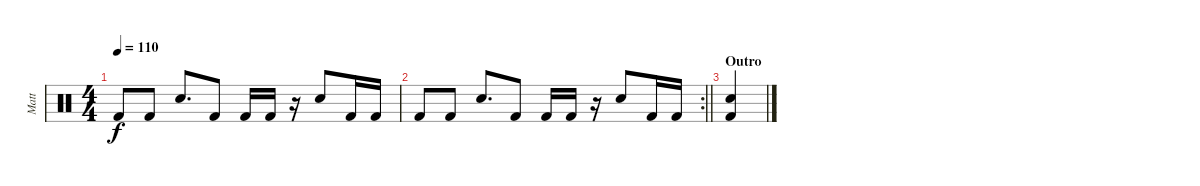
\track ("Matt" "Matt") {instrument percussion}
\staff {score}
\articulation defaults
\ts (4 4)
\tempo 110
\clef neutral
\ks c "Kick (hit) 2".8{dy f} "Kick (hit) 2".8 "Snare (hit) 2".8{d} "Kick (hit) 2".8 "Kick (hit) 2".16 "Kick (hit) 2".16
r.16 "Snare (hit) 2".8 "Kick (hit) 2".16 "Kick (hit) 2".16 |
\rc 2
\barLineRight lightlight "Kick (hit) 2".8 "Kick (hit) 2".8 "Snare (hit) 2".8{d} "Kick (hit) 2".8 "Kick (hit) 2".16 "Kick (hit) 2".16
r.16 "Snare (hit) 2".8 "Kick (hit) 2".16 "Kick (hit) 2".16 |
\section ("" "Outro")
("Snare (hit) 2" "Kick (hit) 2").4
